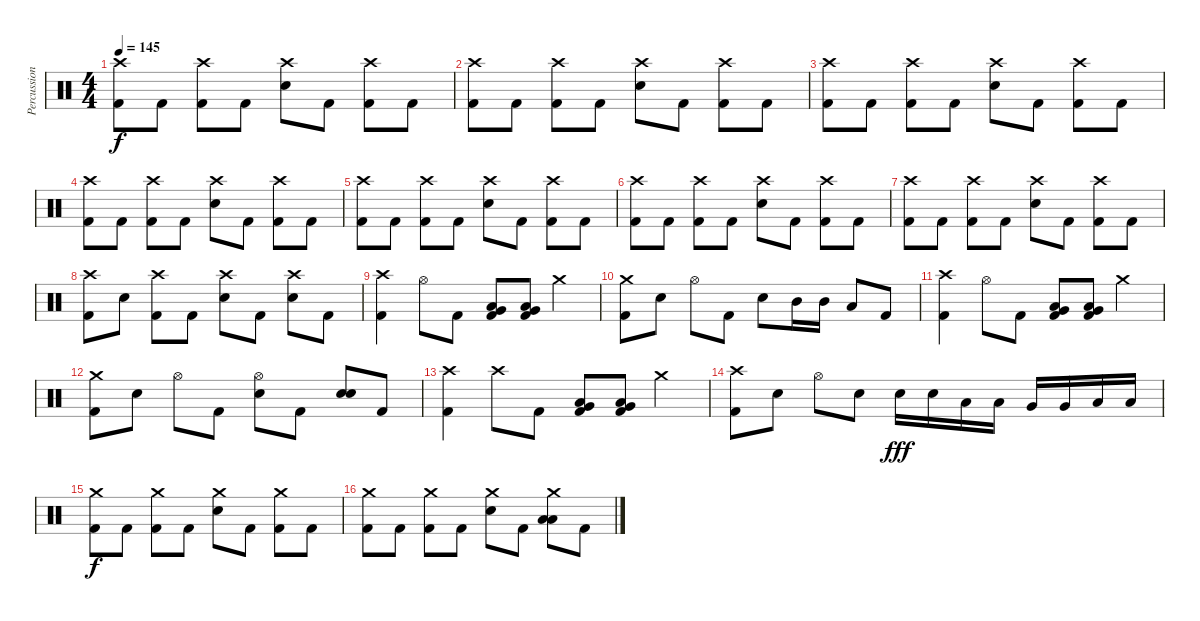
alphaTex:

\track ("Percussion" "Percussion") {instrument percussion}
\staff {score}
\articulation defaults
\ts (4 4)
\tempo 145
\clef neutral
\ks c
("Crash high (hit)" "Kick (hit) 2").8{dy f} "Kick (hit) 2".8 ("Crash high (hit)" "Kick (hit) 2").8 "Kick (hit) 2".8 ("Crash high (hit)" "Electric Snare (hit)").8 "Kick (hit) 2".8 ("Crash high (hit)" "Kick (hit) 2").8 "Kick (hit) 2".8 |
("Crash high (hit)" "Kick (hit) 2").8 "Kick (hit) 2".8 ("Crash high (hit)" "Kick (hit) 2").8 "Kick (hit) 2".8 ("Crash high (hit)" "Electric Snare (hit)").8 "Kick (hit) 2".8 ("Crash high (hit)" "Kick (hit) 2").8 "Kick (hit) 2".8 |
("Crash high (hit)" "Kick (hit) 2").8 "Kick (hit) 2".8 ("Crash high (hit)" "Kick (hit) 2").8 "Kick (hit) 2".8 ("Crash high (hit)" "Electric Snare (hit)").8 "Kick (hit) 2".8 ("Crash high (hit)" "Kick (hit) 2").8 "Kick (hit) 2".8 |
("Crash high (hit)" "Kick (hit) 2").8 "Kick (hit) 2".8 ("Crash high (hit)" "Kick (hit) 2").8 "Kick (hit) 2".8 ("Crash high (hit)" "Electric Snare (hit)").8 "Kick (hit) 2".8 ("Crash high (hit)" "Kick (hit) 2").8 "Kick (hit) 2".8 |
("Crash high (hit)" "Kick (hit) 2").8 "Kick (hit) 2".8 ("Crash high (hit)" "Kick (hit) 2").8 "Kick (hit) 2".8 ("Crash high (hit)" "Electric Snare (hit)").8 "Kick (hit) 2".8 ("Crash high (hit)" "Kick (hit) 2").8 "Kick (hit) 2".8 |
("Crash high (hit)" "Kick (hit) 2").8 "Kick (hit) 2".8 ("Crash high (hit)" "Kick (hit) 2").8 "Kick (hit) 2".8 ("Crash high (hit)" "Electric Snare (hit)").8 "Kick (hit) 2".8 ("Crash high (hit)" "Kick (hit) 2").8 "Kick (hit) 2".8 |
("Crash high (hit)" "Kick (hit) 2").8 "Kick (hit) 2".8 ("Crash high (hit)" "Kick (hit) 2").8 "Kick (hit) 2".8 ("Crash high (hit)" "Electric Snare (hit)").8 "Kick (hit) 2".8 ("Crash high (hit)" "Kick (hit) 2").8 "Kick (hit) 2".8 |
("Crash high (hit)" "Kick (hit) 2").8 "Electric Snare (hit)".8 ("Crash high (hit)" "Kick (hit) 2").8 "Kick (hit) 2".8 ("Crash high (hit)" "Electric Snare (hit)").8 "Kick (hit) 2".8 ("Crash high (hit)" "Electric Snare (hit)").8 "Kick (hit) 2".8 |
("Crash high (hit)" "Kick (hit) 2").4 "Hi-Hat (open)".8 "Kick (hit) 2".8 ("Very Low Tom (hit)" "Low Tom (hit)" "Kick (hit) 2").8 ("Very Low Tom (hit)" "Low Tom (hit)" "Kick (hit) 2").8 "Crash medium (hit)".4 |
("Crash medium (hit)" "Kick (hit) 2").8 "Electric Snare (hit)".8 "Hi-Hat (open)".8 "Kick (hit) 2".8 "Electric Snare (hit)".8 "Mid Tom (hit)".16 "Mid Tom (hit)".16 "Low Tom (hit)".8 "Kick (hit) 2".8 |
("Crash high (hit)" "Kick (hit) 2").4 "Hi-Hat (open)".8 "Kick (hit) 2".8 ("Very Low Tom (hit)" "Low Tom (hit)" "Kick (hit) 2").8 ("Very Low Tom (hit)" "Low Tom (hit)" "Kick (hit) 2").8 "Crash medium (hit)".4 |
("Crash medium (hit)" "Kick (hit) 2").8 "Electric Snare (hit)".8 "Hi-Hat (open)".8 "Kick (hit) 2".8 ("Hi-Hat (open)" "Electric Snare (hit)").8 "Kick (hit) 2".8 ("Electric Snare (hit)" "Electric Snare (hit)").8{bd 240} "Kick (hit) 2".8 |
("Crash high (hit)" "Kick (hit) 2").4 "Crash high (hit)".8 "Kick (hit) 2".8 ("Very Low Tom (hit)" "Low Tom (hit)" "Kick (hit) 2").8 ("Very Low Tom (hit)" "Low Tom (hit)" "Kick (hit) 2").8 "Crash medium (hit)".4 |
("Crash high (hit)" "Kick (hit) 2").8 "Electric Snare (hit)".8 "Hi-Hat (open)".8 "Electric Snare (hit)".8 "Electric Snare (hit)".16{dy fff} "Electric Snare (hit)".16 "Low Tom (hit)".16 "Low Tom (hit)".16 "Very Low Tom (hit)".16 "Very Low Tom (hit)".16 "Low Floor Tom (hit)".16 "Low Floor Tom (hit)".16 |
("Crash medium (hit)" "Kick (hit) 2").8{dy f} "Kick (hit) 2".8 ("Crash medium (hit)" "Kick (hit) 2").8 "Kick (hit) 2".8 ("Crash medium (hit)" "Electric Snare (hit)").8 "Kick (hit) 2".8 ("Crash medium (hit)" "Kick (hit) 2").8 "Kick (hit) 2".8 |
("Crash medium (hit)" "Kick (hit) 2").8 "Kick (hit) 2".8 ("Crash medium (hit)" "Kick (hit) 2").8 "Kick (hit) 2".8 ("Crash medium (hit)" "Electric Snare (hit)").8 "Kick (hit) 2".8 ("Crash medium (hit)" "Low Tom (hit)" "Low Tom (hit)").8 "Kick (hit) 2".8
